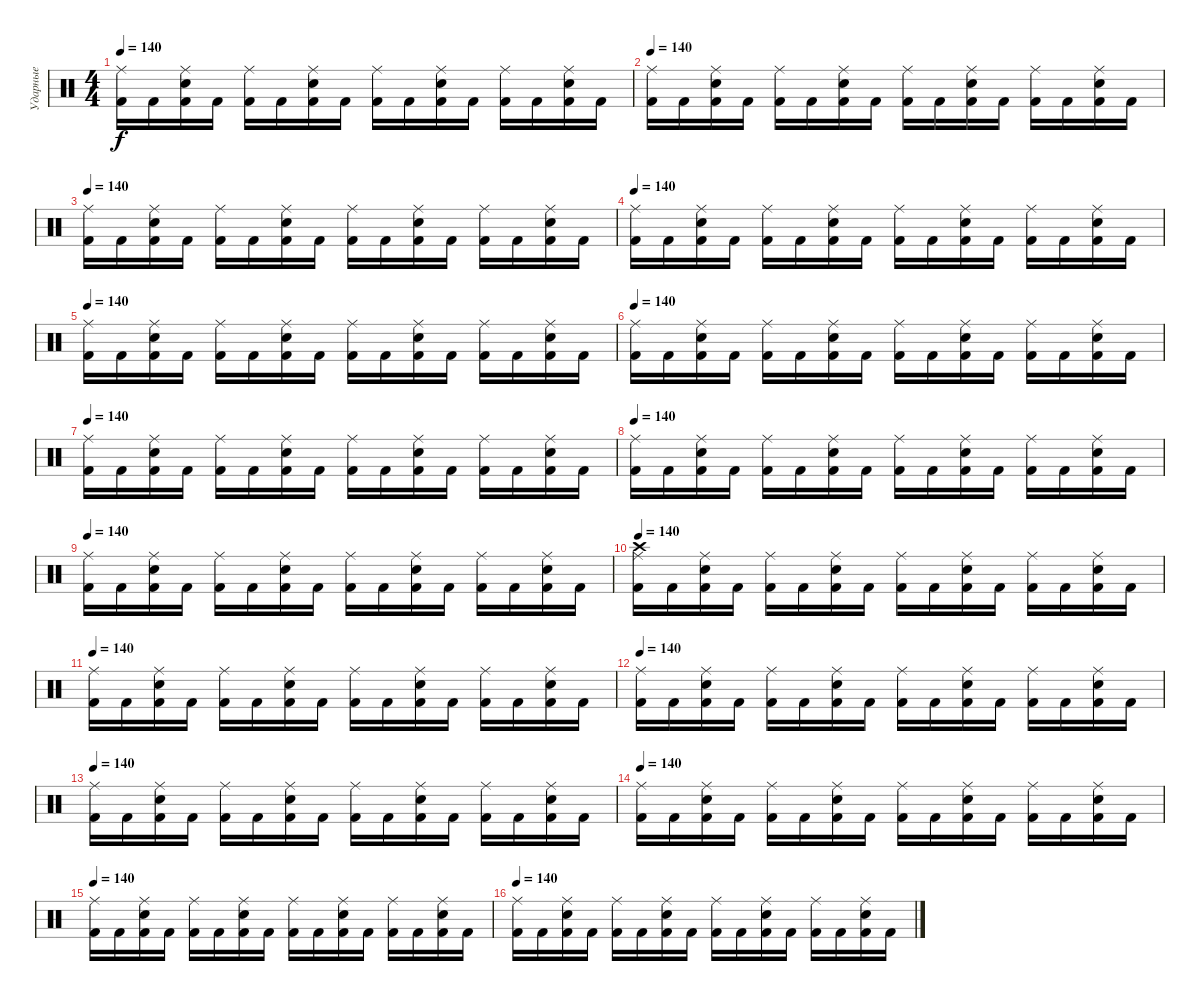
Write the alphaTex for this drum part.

\track ("Ударные" "Ударные") {instrument percussion}
\staff {score}
\articulation defaults
\ts (4 4)
\tempo 140
\clef neutral
\ks c
("Ride (middle)" "Kick (hit) 2").16{dy f} "Kick (hit) 2".16 ("Ride (middle)" "Kick (hit) 2" "Snare (hit) 2").16 "Kick (hit) 2".16 ("Ride (middle)" "Kick (hit) 2").16 "Kick (hit) 2".16 ("Ride (middle)" "Kick (hit) 2" "Snare (hit) 2").16 "Kick (hit) 2".16 ("Ride (middle)" "Kick (hit) 2").16 "Kick (hit) 2".16 ("Ride (middle)" "Kick (hit) 2" "Snare (hit) 2").16 "Kick (hit) 2".16 ("Ride (middle)" "Kick (hit) 2").16 "Kick (hit) 2".16 ("Ride (middle)" "Kick (hit) 2" "Snare (hit) 2").16 "Kick (hit) 2".16 |
\tempo 140
("Ride (middle)" "Kick (hit) 2").16 "Kick (hit) 2".16 ("Ride (middle)" "Kick (hit) 2" "Snare (hit) 2").16 "Kick (hit) 2".16 ("Ride (middle)" "Kick (hit) 2").16 "Kick (hit) 2".16 ("Ride (middle)" "Kick (hit) 2" "Snare (hit) 2").16 "Kick (hit) 2".16 ("Ride (middle)" "Kick (hit) 2").16 "Kick (hit) 2".16 ("Ride (middle)" "Kick (hit) 2" "Snare (hit) 2").16 "Kick (hit) 2".16 ("Ride (middle)" "Kick (hit) 2").16 "Kick (hit) 2".16 ("Ride (middle)" "Kick (hit) 2" "Snare (hit) 2").16 "Kick (hit) 2".16 |
\tempo 140
("Ride (middle)" "Kick (hit) 2").16 "Kick (hit) 2".16 ("Ride (middle)" "Kick (hit) 2" "Snare (hit) 2").16 "Kick (hit) 2".16 ("Ride (middle)" "Kick (hit) 2").16 "Kick (hit) 2".16 ("Ride (middle)" "Kick (hit) 2" "Snare (hit) 2").16 "Kick (hit) 2".16 ("Ride (middle)" "Kick (hit) 2").16 "Kick (hit) 2".16 ("Ride (middle)" "Kick (hit) 2" "Snare (hit) 2").16 "Kick (hit) 2".16 ("Ride (middle)" "Kick (hit) 2").16 "Kick (hit) 2".16 ("Ride (middle)" "Kick (hit) 2" "Snare (hit) 2").16 "Kick (hit) 2".16 |
\tempo 140
("Ride (middle)" "Kick (hit) 2").16 "Kick (hit) 2".16 ("Ride (middle)" "Kick (hit) 2" "Snare (hit) 2").16 "Kick (hit) 2".16 ("Ride (middle)" "Kick (hit) 2").16 "Kick (hit) 2".16 ("Ride (middle)" "Kick (hit) 2" "Snare (hit) 2").16 "Kick (hit) 2".16 ("Ride (middle)" "Kick (hit) 2").16 "Kick (hit) 2".16 ("Ride (middle)" "Kick (hit) 2" "Snare (hit) 2").16 "Kick (hit) 2".16 ("Ride (middle)" "Kick (hit) 2").16 "Kick (hit) 2".16 ("Ride (middle)" "Kick (hit) 2" "Snare (hit) 2").16 "Kick (hit) 2".16 |
\tempo 140
("Ride (middle)" "Kick (hit) 2").16 "Kick (hit) 2".16 ("Ride (middle)" "Kick (hit) 2" "Snare (hit) 2").16 "Kick (hit) 2".16 ("Ride (middle)" "Kick (hit) 2").16 "Kick (hit) 2".16 ("Ride (middle)" "Kick (hit) 2" "Snare (hit) 2").16 "Kick (hit) 2".16 ("Ride (middle)" "Kick (hit) 2").16 "Kick (hit) 2".16 ("Ride (middle)" "Kick (hit) 2" "Snare (hit) 2").16 "Kick (hit) 2".16 ("Ride (middle)" "Kick (hit) 2").16 "Kick (hit) 2".16 ("Ride (middle)" "Kick (hit) 2" "Snare (hit) 2").16 "Kick (hit) 2".16 |
\tempo 140
("Ride (middle)" "Kick (hit) 2").16 "Kick (hit) 2".16 ("Ride (middle)" "Kick (hit) 2" "Snare (hit) 2").16 "Kick (hit) 2".16 ("Ride (middle)" "Kick (hit) 2").16 "Kick (hit) 2".16 ("Ride (middle)" "Kick (hit) 2" "Snare (hit) 2").16 "Kick (hit) 2".16 ("Ride (middle)" "Kick (hit) 2").16 "Kick (hit) 2".16 ("Ride (middle)" "Kick (hit) 2" "Snare (hit) 2").16 "Kick (hit) 2".16 ("Ride (middle)" "Kick (hit) 2").16 "Kick (hit) 2".16 ("Ride (middle)" "Kick (hit) 2" "Snare (hit) 2").16 "Kick (hit) 2".16 |
\tempo 140
("Ride (middle)" "Kick (hit) 2").16 "Kick (hit) 2".16 ("Ride (middle)" "Kick (hit) 2" "Snare (hit) 2").16 "Kick (hit) 2".16 ("Ride (middle)" "Kick (hit) 2").16 "Kick (hit) 2".16 ("Ride (middle)" "Kick (hit) 2" "Snare (hit) 2").16 "Kick (hit) 2".16 ("Ride (middle)" "Kick (hit) 2").16 "Kick (hit) 2".16 ("Ride (middle)" "Kick (hit) 2" "Snare (hit) 2").16 "Kick (hit) 2".16 ("Ride (middle)" "Kick (hit) 2").16 "Kick (hit) 2".16 ("Ride (middle)" "Kick (hit) 2" "Snare (hit) 2").16 "Kick (hit) 2".16 |
\tempo 140
("Ride (middle)" "Kick (hit) 2").16 "Kick (hit) 2".16 ("Ride (middle)" "Kick (hit) 2" "Snare (hit) 2").16 "Kick (hit) 2".16 ("Ride (middle)" "Kick (hit) 2").16 "Kick (hit) 2".16 ("Ride (middle)" "Kick (hit) 2" "Snare (hit) 2").16 "Kick (hit) 2".16 ("Ride (middle)" "Kick (hit) 2").16 "Kick (hit) 2".16 ("Ride (middle)" "Kick (hit) 2" "Snare (hit) 2").16 "Kick (hit) 2".16 ("Ride (middle)" "Kick (hit) 2").16 "Kick (hit) 2".16 ("Ride (middle)" "Kick (hit) 2" "Snare (hit) 2").16 "Kick (hit) 2".16 |
\tempo 140
("Ride (middle)" "Kick (hit) 2").16 "Kick (hit) 2".16 ("Ride (middle)" "Kick (hit) 2" "Snare (hit) 2").16 "Kick (hit) 2".16 ("Ride (middle)" "Kick (hit) 2").16 "Kick (hit) 2".16 ("Ride (middle)" "Kick (hit) 2" "Snare (hit) 2").16 "Kick (hit) 2".16 ("Ride (middle)" "Kick (hit) 2").16 "Kick (hit) 2".16 ("Ride (middle)" "Kick (hit) 2" "Snare (hit) 2").16 "Kick (hit) 2".16 ("Ride (middle)" "Kick (hit) 2").16 "Kick (hit) 2".16 ("Ride (middle)" "Kick (hit) 2" "Snare (hit) 2").16 "Kick (hit) 2".16 |
\tempo 140
("Ride (middle)" "Kick (hit) 2" "Crash high (hit)").16 "Kick (hit) 2".16 ("Ride (middle)" "Kick (hit) 2" "Snare (hit) 2").16 "Kick (hit) 2".16 ("Ride (middle)" "Kick (hit) 2").16 "Kick (hit) 2".16 ("Ride (middle)" "Kick (hit) 2" "Snare (hit) 2").16 "Kick (hit) 2".16 ("Ride (middle)" "Kick (hit) 2").16 "Kick (hit) 2".16 ("Ride (middle)" "Kick (hit) 2" "Snare (hit) 2").16 "Kick (hit) 2".16 ("Ride (middle)" "Kick (hit) 2").16 "Kick (hit) 2".16 ("Ride (middle)" "Kick (hit) 2" "Snare (hit) 2").16 "Kick (hit) 2".16 |
\tempo 140
("Ride (middle)" "Kick (hit) 2").16 "Kick (hit) 2".16 ("Ride (middle)" "Kick (hit) 2" "Snare (hit) 2").16 "Kick (hit) 2".16 ("Ride (middle)" "Kick (hit) 2").16 "Kick (hit) 2".16 ("Ride (middle)" "Kick (hit) 2" "Snare (hit) 2").16 "Kick (hit) 2".16 ("Ride (middle)" "Kick (hit) 2").16 "Kick (hit) 2".16 ("Ride (middle)" "Kick (hit) 2" "Snare (hit) 2").16 "Kick (hit) 2".16 ("Ride (middle)" "Kick (hit) 2").16 "Kick (hit) 2".16 ("Ride (middle)" "Kick (hit) 2" "Snare (hit) 2").16 "Kick (hit) 2".16 |
\tempo 140
("Ride (middle)" "Kick (hit) 2").16 "Kick (hit) 2".16 ("Ride (middle)" "Kick (hit) 2" "Snare (hit) 2").16 "Kick (hit) 2".16 ("Ride (middle)" "Kick (hit) 2").16 "Kick (hit) 2".16 ("Ride (middle)" "Kick (hit) 2" "Snare (hit) 2").16 "Kick (hit) 2".16 ("Ride (middle)" "Kick (hit) 2").16 "Kick (hit) 2".16 ("Ride (middle)" "Kick (hit) 2" "Snare (hit) 2").16 "Kick (hit) 2".16 ("Ride (middle)" "Kick (hit) 2").16 "Kick (hit) 2".16 ("Ride (middle)" "Kick (hit) 2" "Snare (hit) 2").16 "Kick (hit) 2".16 |
\tempo 140
("Ride (middle)" "Kick (hit) 2").16 "Kick (hit) 2".16 ("Ride (middle)" "Kick (hit) 2" "Snare (hit) 2").16 "Kick (hit) 2".16 ("Ride (middle)" "Kick (hit) 2").16 "Kick (hit) 2".16 ("Ride (middle)" "Kick (hit) 2" "Snare (hit) 2").16 "Kick (hit) 2".16 ("Ride (middle)" "Kick (hit) 2").16 "Kick (hit) 2".16 ("Ride (middle)" "Kick (hit) 2" "Snare (hit) 2").16 "Kick (hit) 2".16 ("Ride (middle)" "Kick (hit) 2").16 "Kick (hit) 2".16 ("Ride (middle)" "Kick (hit) 2" "Snare (hit) 2").16 "Kick (hit) 2".16 |
\tempo 140
("Ride (middle)" "Kick (hit) 2").16 "Kick (hit) 2".16 ("Ride (middle)" "Kick (hit) 2" "Snare (hit) 2").16 "Kick (hit) 2".16 ("Ride (middle)" "Kick (hit) 2").16 "Kick (hit) 2".16 ("Ride (middle)" "Kick (hit) 2" "Snare (hit) 2").16 "Kick (hit) 2".16 ("Ride (middle)" "Kick (hit) 2").16 "Kick (hit) 2".16 ("Ride (middle)" "Kick (hit) 2" "Snare (hit) 2").16 "Kick (hit) 2".16 ("Ride (middle)" "Kick (hit) 2").16 "Kick (hit) 2".16 ("Ride (middle)" "Kick (hit) 2" "Snare (hit) 2").16 "Kick (hit) 2".16 |
\tempo 140
("Ride (middle)" "Kick (hit) 2").16 "Kick (hit) 2".16 ("Ride (middle)" "Kick (hit) 2" "Snare (hit) 2").16 "Kick (hit) 2".16 ("Ride (middle)" "Kick (hit) 2").16 "Kick (hit) 2".16 ("Ride (middle)" "Kick (hit) 2" "Snare (hit) 2").16 "Kick (hit) 2".16 ("Ride (middle)" "Kick (hit) 2").16 "Kick (hit) 2".16 ("Ride (middle)" "Kick (hit) 2" "Snare (hit) 2").16 "Kick (hit) 2".16 ("Ride (middle)" "Kick (hit) 2").16 "Kick (hit) 2".16 ("Ride (middle)" "Kick (hit) 2" "Snare (hit) 2").16 "Kick (hit) 2".16 |
\tempo 140
("Ride (middle)" "Kick (hit) 2").16 "Kick (hit) 2".16 ("Ride (middle)" "Kick (hit) 2" "Snare (hit) 2").16 "Kick (hit) 2".16 ("Ride (middle)" "Kick (hit) 2").16 "Kick (hit) 2".16 ("Ride (middle)" "Kick (hit) 2" "Snare (hit) 2").16 "Kick (hit) 2".16 ("Ride (middle)" "Kick (hit) 2").16 "Kick (hit) 2".16 ("Ride (middle)" "Kick (hit) 2" "Snare (hit) 2").16 "Kick (hit) 2".16 ("Ride (middle)" "Kick (hit) 2").16 "Kick (hit) 2".16 ("Ride (middle)" "Kick (hit) 2" "Snare (hit) 2").16 "Kick (hit) 2".16
